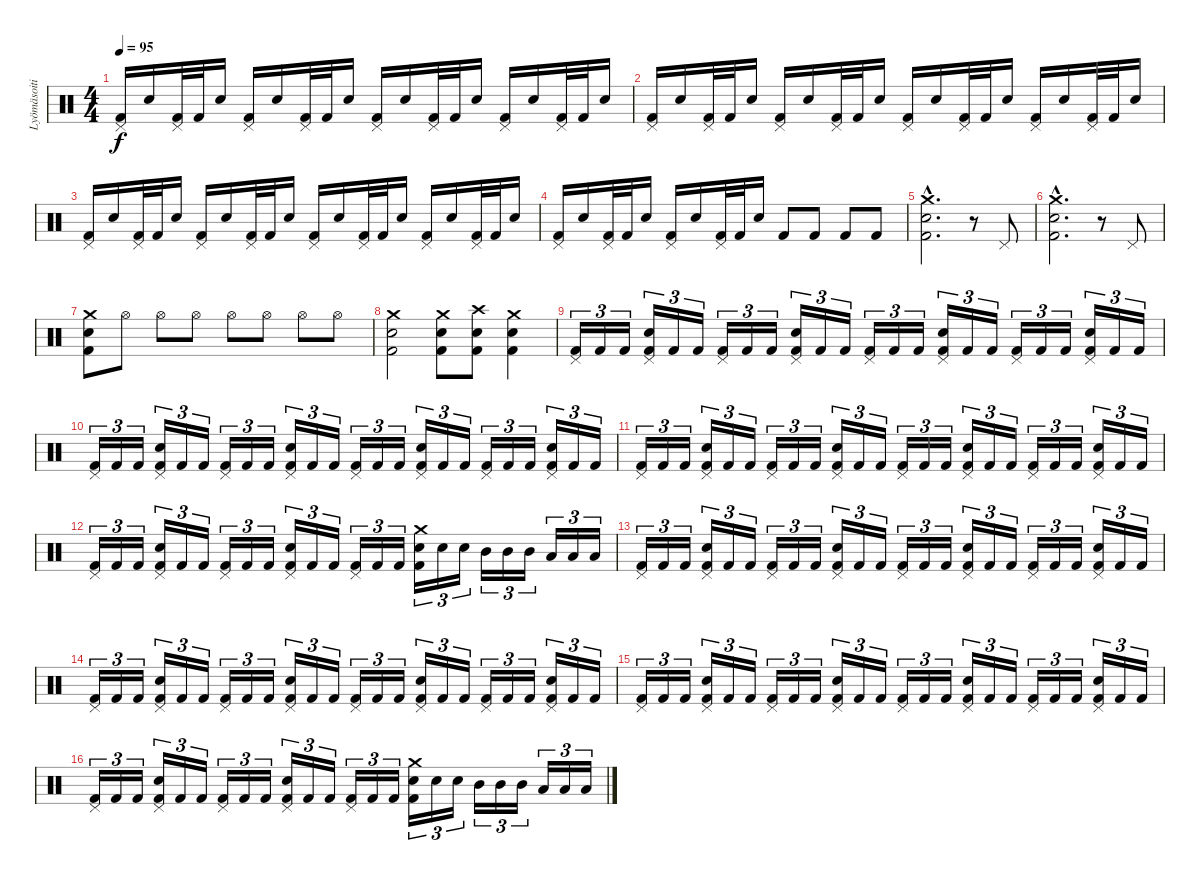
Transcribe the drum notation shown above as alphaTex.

\track ("Lyömäsoitin" "Lyömäsoiti") {instrument percussion}
\staff {score}
\articulation defaults
\ts (4 4)
\tempo 95
\clef neutral
\ks c
("Kick (hit) 2" "Pedal Hi-Hat (hit)").16{dy f} "Electric Snare (hit)".16 ("Kick (hit) 2" "Pedal Hi-Hat (hit)").32 "Kick (hit) 2".32 "Electric Snare (hit)".16 ("Kick (hit) 2" "Pedal Hi-Hat (hit)").16 "Electric Snare (hit)".16 ("Kick (hit) 2" "Pedal Hi-Hat (hit)").32 "Kick (hit) 2".32 "Electric Snare (hit)".16 ("Kick (hit) 2" "Pedal Hi-Hat (hit)").16 "Electric Snare (hit)".16 ("Kick (hit) 2" "Pedal Hi-Hat (hit)").32 "Kick (hit) 2".32 "Electric Snare (hit)".16 ("Kick (hit) 2" "Pedal Hi-Hat (hit)").16 "Electric Snare (hit)".16 ("Kick (hit) 2" "Pedal Hi-Hat (hit)").32 "Kick (hit) 2".32 "Electric Snare (hit)".16 |
("Kick (hit) 2" "Pedal Hi-Hat (hit)").16 "Electric Snare (hit)".16 ("Kick (hit) 2" "Pedal Hi-Hat (hit)").32 "Kick (hit) 2".32 "Electric Snare (hit)".16 ("Kick (hit) 2" "Pedal Hi-Hat (hit)").16 "Electric Snare (hit)".16 ("Kick (hit) 2" "Pedal Hi-Hat (hit)").32 "Kick (hit) 2".32 "Electric Snare (hit)".16 ("Kick (hit) 2" "Pedal Hi-Hat (hit)").16 "Electric Snare (hit)".16 ("Kick (hit) 2" "Pedal Hi-Hat (hit)").32 "Kick (hit) 2".32 "Electric Snare (hit)".16 ("Kick (hit) 2" "Pedal Hi-Hat (hit)").16 "Electric Snare (hit)".16 ("Kick (hit) 2" "Pedal Hi-Hat (hit)").32 "Kick (hit) 2".32 "Electric Snare (hit)".16 |
("Kick (hit) 2" "Pedal Hi-Hat (hit)").16 "Electric Snare (hit)".16 ("Kick (hit) 2" "Pedal Hi-Hat (hit)").32 "Kick (hit) 2".32 "Electric Snare (hit)".16 ("Kick (hit) 2" "Pedal Hi-Hat (hit)").16 "Electric Snare (hit)".16 ("Kick (hit) 2" "Pedal Hi-Hat (hit)").32 "Kick (hit) 2".32 "Electric Snare (hit)".16 ("Kick (hit) 2" "Pedal Hi-Hat (hit)").16 "Electric Snare (hit)".16 ("Kick (hit) 2" "Pedal Hi-Hat (hit)").32 "Kick (hit) 2".32 "Electric Snare (hit)".16 ("Kick (hit) 2" "Pedal Hi-Hat (hit)").16 "Electric Snare (hit)".16 ("Kick (hit) 2" "Pedal Hi-Hat (hit)").32 "Kick (hit) 2".32 "Electric Snare (hit)".16 |
("Kick (hit) 2" "Pedal Hi-Hat (hit)").16 "Electric Snare (hit)".16 ("Kick (hit) 2" "Pedal Hi-Hat (hit)").32 "Kick (hit) 2".32 "Electric Snare (hit)".16 ("Kick (hit) 2" "Pedal Hi-Hat (hit)").16 "Electric Snare (hit)".16 ("Kick (hit) 2" "Pedal Hi-Hat (hit)").32 "Kick (hit) 2".32 "Electric Snare (hit)".16 "Kick (hit) 2".8 "Kick (hit) 2".8 "Kick (hit) 2".8 "Kick (hit) 2".8 |
("Kick (hit) 2"{hac} "Electric Snare (hit)"{hac} "Crash medium (hit)"{hac}).2{d} r.8 "Pedal Hi-Hat (hit)".8 |
("Kick (hit) 2"{hac} "Electric Snare (hit)"{hac} "Crash medium (hit)"{hac}).2{d} r.8 "Pedal Hi-Hat (hit)".8 |
("Kick (hit) 2" "Electric Snare (hit)" "Crash medium (hit)").8 "Hi-Hat (open)".8 "Hi-Hat (open)".8 "Hi-Hat (open)".8 "Hi-Hat (open)".8 "Hi-Hat (open)".8 "Hi-Hat (open)".8 "Hi-Hat (open)".8 |
("Kick (hit) 2" "Electric Snare (hit)" "Crash medium (hit)").2 ("Kick (hit) 2" "Electric Snare (hit)" "Crash medium (hit)").8 ("Kick (hit) 2" "Electric Snare (hit)" "Crash high (hit)").8 ("Kick (hit) 2" "Electric Snare (hit)" "Crash medium (hit)").4 |
("Kick (hit) 2" "Pedal Hi-Hat (hit)").16{tu (3 2)} "Kick (hit) 2".16{tu (3 2)} "Kick (hit) 2".16{tu (3 2)} ("Kick (hit) 2" "Electric Snare (hit)" "Pedal Hi-Hat (hit)").16{tu (3 2)} "Kick (hit) 2".16{tu (3 2)} "Kick (hit) 2".16{tu (3 2)} ("Kick (hit) 2" "Pedal Hi-Hat (hit)").16{tu (3 2)} "Kick (hit) 2".16{tu (3 2)} "Kick (hit) 2".16{tu (3 2)} ("Kick (hit) 2" "Electric Snare (hit)" "Pedal Hi-Hat (hit)").16{tu (3 2)} "Kick (hit) 2".16{tu (3 2)} "Kick (hit) 2".16{tu (3 2)} ("Kick (hit) 2" "Pedal Hi-Hat (hit)").16{tu (3 2)} "Kick (hit) 2".16{tu (3 2)} "Kick (hit) 2".16{tu (3 2)} ("Kick (hit) 2" "Electric Snare (hit)" "Pedal Hi-Hat (hit)").16{tu (3 2)} "Kick (hit) 2".16{tu (3 2)} "Kick (hit) 2".16{tu (3 2)} ("Kick (hit) 2" "Pedal Hi-Hat (hit)").16{tu (3 2)} "Kick (hit) 2".16{tu (3 2)} "Kick (hit) 2".16{tu (3 2)} ("Kick (hit) 2" "Electric Snare (hit)" "Pedal Hi-Hat (hit)").16{tu (3 2)} "Kick (hit) 2".16{tu (3 2)} "Kick (hit) 2".16{tu (3 2)} |
("Kick (hit) 2" "Pedal Hi-Hat (hit)").16{tu (3 2)} "Kick (hit) 2".16{tu (3 2)} "Kick (hit) 2".16{tu (3 2)} ("Kick (hit) 2" "Electric Snare (hit)" "Pedal Hi-Hat (hit)").16{tu (3 2)} "Kick (hit) 2".16{tu (3 2)} "Kick (hit) 2".16{tu (3 2)} ("Kick (hit) 2" "Pedal Hi-Hat (hit)").16{tu (3 2)} "Kick (hit) 2".16{tu (3 2)} "Kick (hit) 2".16{tu (3 2)} ("Kick (hit) 2" "Electric Snare (hit)" "Pedal Hi-Hat (hit)").16{tu (3 2)} "Kick (hit) 2".16{tu (3 2)} "Kick (hit) 2".16{tu (3 2)} ("Kick (hit) 2" "Pedal Hi-Hat (hit)").16{tu (3 2)} "Kick (hit) 2".16{tu (3 2)} "Kick (hit) 2".16{tu (3 2)} ("Kick (hit) 2" "Electric Snare (hit)" "Pedal Hi-Hat (hit)").16{tu (3 2)} "Kick (hit) 2".16{tu (3 2)} "Kick (hit) 2".16{tu (3 2)} ("Kick (hit) 2" "Pedal Hi-Hat (hit)").16{tu (3 2)} "Kick (hit) 2".16{tu (3 2)} "Kick (hit) 2".16{tu (3 2)} ("Kick (hit) 2" "Electric Snare (hit)" "Pedal Hi-Hat (hit)").16{tu (3 2)} "Kick (hit) 2".16{tu (3 2)} "Kick (hit) 2".16{tu (3 2)} |
("Kick (hit) 2" "Pedal Hi-Hat (hit)").16{tu (3 2)} "Kick (hit) 2".16{tu (3 2)} "Kick (hit) 2".16{tu (3 2)} ("Kick (hit) 2" "Electric Snare (hit)" "Pedal Hi-Hat (hit)").16{tu (3 2)} "Kick (hit) 2".16{tu (3 2)} "Kick (hit) 2".16{tu (3 2)} ("Kick (hit) 2" "Pedal Hi-Hat (hit)").16{tu (3 2)} "Kick (hit) 2".16{tu (3 2)} "Kick (hit) 2".16{tu (3 2)} ("Kick (hit) 2" "Electric Snare (hit)" "Pedal Hi-Hat (hit)").16{tu (3 2)} "Kick (hit) 2".16{tu (3 2)} "Kick (hit) 2".16{tu (3 2)} ("Kick (hit) 2" "Pedal Hi-Hat (hit)").16{tu (3 2)} "Kick (hit) 2".16{tu (3 2)} "Kick (hit) 2".16{tu (3 2)} ("Kick (hit) 2" "Electric Snare (hit)" "Pedal Hi-Hat (hit)").16{tu (3 2)} "Kick (hit) 2".16{tu (3 2)} "Kick (hit) 2".16{tu (3 2)} ("Kick (hit) 2" "Pedal Hi-Hat (hit)").16{tu (3 2)} "Kick (hit) 2".16{tu (3 2)} "Kick (hit) 2".16{tu (3 2)} ("Kick (hit) 2" "Electric Snare (hit)" "Pedal Hi-Hat (hit)").16{tu (3 2)} "Kick (hit) 2".16{tu (3 2)} "Kick (hit) 2".16{tu (3 2)} |
("Kick (hit) 2" "Pedal Hi-Hat (hit)").16{tu (3 2)} "Kick (hit) 2".16{tu (3 2)} "Kick (hit) 2".16{tu (3 2)} ("Kick (hit) 2" "Electric Snare (hit)" "Pedal Hi-Hat (hit)").16{tu (3 2)} "Kick (hit) 2".16{tu (3 2)} "Kick (hit) 2".16{tu (3 2)} ("Kick (hit) 2" "Pedal Hi-Hat (hit)").16{tu (3 2)} "Kick (hit) 2".16{tu (3 2)} "Kick (hit) 2".16{tu (3 2)} ("Kick (hit) 2" "Electric Snare (hit)" "Pedal Hi-Hat (hit)").16{tu (3 2)} "Kick (hit) 2".16{tu (3 2)} "Kick (hit) 2".16{tu (3 2)} ("Kick (hit) 2" "Pedal Hi-Hat (hit)").16{tu (3 2)} "Kick (hit) 2".16{tu (3 2)} "Kick (hit) 2".16{tu (3 2)} ("Kick (hit) 2" "Electric Snare (hit)" "Crash medium (hit)").16{tu (3 2)} "Electric Snare (hit)".16{tu (3 2)} "Electric Snare (hit)".16{tu (3 2)} "Mid Tom (hit)".16{tu (3 2)} "Mid Tom (hit)".16{tu (3 2)} "Mid Tom (hit)".16{tu (3 2)} "Low Tom (hit)".16{tu (3 2)} "Low Tom (hit)".16{tu (3 2)} "Low Tom (hit)".16{tu (3 2)} |
("Kick (hit) 2" "Pedal Hi-Hat (hit)").16{tu (3 2)} "Kick (hit) 2".16{tu (3 2)} "Kick (hit) 2".16{tu (3 2)} ("Kick (hit) 2" "Electric Snare (hit)" "Pedal Hi-Hat (hit)").16{tu (3 2)} "Kick (hit) 2".16{tu (3 2)} "Kick (hit) 2".16{tu (3 2)} ("Kick (hit) 2" "Pedal Hi-Hat (hit)").16{tu (3 2)} "Kick (hit) 2".16{tu (3 2)} "Kick (hit) 2".16{tu (3 2)} ("Kick (hit) 2" "Electric Snare (hit)" "Pedal Hi-Hat (hit)").16{tu (3 2)} "Kick (hit) 2".16{tu (3 2)} "Kick (hit) 2".16{tu (3 2)} ("Kick (hit) 2" "Pedal Hi-Hat (hit)").16{tu (3 2)} "Kick (hit) 2".16{tu (3 2)} "Kick (hit) 2".16{tu (3 2)} ("Kick (hit) 2" "Electric Snare (hit)" "Pedal Hi-Hat (hit)").16{tu (3 2)} "Kick (hit) 2".16{tu (3 2)} "Kick (hit) 2".16{tu (3 2)} ("Kick (hit) 2" "Pedal Hi-Hat (hit)").16{tu (3 2)} "Kick (hit) 2".16{tu (3 2)} "Kick (hit) 2".16{tu (3 2)} ("Kick (hit) 2" "Electric Snare (hit)" "Pedal Hi-Hat (hit)").16{tu (3 2)} "Kick (hit) 2".16{tu (3 2)} "Kick (hit) 2".16{tu (3 2)} |
("Kick (hit) 2" "Pedal Hi-Hat (hit)").16{tu (3 2)} "Kick (hit) 2".16{tu (3 2)} "Kick (hit) 2".16{tu (3 2)} ("Kick (hit) 2" "Electric Snare (hit)" "Pedal Hi-Hat (hit)").16{tu (3 2)} "Kick (hit) 2".16{tu (3 2)} "Kick (hit) 2".16{tu (3 2)} ("Kick (hit) 2" "Pedal Hi-Hat (hit)").16{tu (3 2)} "Kick (hit) 2".16{tu (3 2)} "Kick (hit) 2".16{tu (3 2)} ("Kick (hit) 2" "Electric Snare (hit)" "Pedal Hi-Hat (hit)").16{tu (3 2)} "Kick (hit) 2".16{tu (3 2)} "Kick (hit) 2".16{tu (3 2)} ("Kick (hit) 2" "Pedal Hi-Hat (hit)").16{tu (3 2)} "Kick (hit) 2".16{tu (3 2)} "Kick (hit) 2".16{tu (3 2)} ("Kick (hit) 2" "Electric Snare (hit)" "Pedal Hi-Hat (hit)").16{tu (3 2)} "Kick (hit) 2".16{tu (3 2)} "Kick (hit) 2".16{tu (3 2)} ("Kick (hit) 2" "Pedal Hi-Hat (hit)").16{tu (3 2)} "Kick (hit) 2".16{tu (3 2)} "Kick (hit) 2".16{tu (3 2)} ("Kick (hit) 2" "Electric Snare (hit)" "Pedal Hi-Hat (hit)").16{tu (3 2)} "Kick (hit) 2".16{tu (3 2)} "Kick (hit) 2".16{tu (3 2)} |
("Kick (hit) 2" "Pedal Hi-Hat (hit)").16{tu (3 2)} "Kick (hit) 2".16{tu (3 2)} "Kick (hit) 2".16{tu (3 2)} ("Kick (hit) 2" "Electric Snare (hit)" "Pedal Hi-Hat (hit)").16{tu (3 2)} "Kick (hit) 2".16{tu (3 2)} "Kick (hit) 2".16{tu (3 2)} ("Kick (hit) 2" "Pedal Hi-Hat (hit)").16{tu (3 2)} "Kick (hit) 2".16{tu (3 2)} "Kick (hit) 2".16{tu (3 2)} ("Kick (hit) 2" "Electric Snare (hit)" "Pedal Hi-Hat (hit)").16{tu (3 2)} "Kick (hit) 2".16{tu (3 2)} "Kick (hit) 2".16{tu (3 2)} ("Kick (hit) 2" "Pedal Hi-Hat (hit)").16{tu (3 2)} "Kick (hit) 2".16{tu (3 2)} "Kick (hit) 2".16{tu (3 2)} ("Kick (hit) 2" "Electric Snare (hit)" "Pedal Hi-Hat (hit)").16{tu (3 2)} "Kick (hit) 2".16{tu (3 2)} "Kick (hit) 2".16{tu (3 2)} ("Kick (hit) 2" "Pedal Hi-Hat (hit)").16{tu (3 2)} "Kick (hit) 2".16{tu (3 2)} "Kick (hit) 2".16{tu (3 2)} ("Kick (hit) 2" "Electric Snare (hit)" "Pedal Hi-Hat (hit)").16{tu (3 2)} "Kick (hit) 2".16{tu (3 2)} "Kick (hit) 2".16{tu (3 2)} |
("Kick (hit) 2" "Pedal Hi-Hat (hit)").16{tu (3 2)} "Kick (hit) 2".16{tu (3 2)} "Kick (hit) 2".16{tu (3 2)} ("Kick (hit) 2" "Electric Snare (hit)" "Pedal Hi-Hat (hit)").16{tu (3 2)} "Kick (hit) 2".16{tu (3 2)} "Kick (hit) 2".16{tu (3 2)} ("Kick (hit) 2" "Pedal Hi-Hat (hit)").16{tu (3 2)} "Kick (hit) 2".16{tu (3 2)} "Kick (hit) 2".16{tu (3 2)} ("Kick (hit) 2" "Electric Snare (hit)" "Pedal Hi-Hat (hit)").16{tu (3 2)} "Kick (hit) 2".16{tu (3 2)} "Kick (hit) 2".16{tu (3 2)} ("Kick (hit) 2" "Pedal Hi-Hat (hit)").16{tu (3 2)} "Kick (hit) 2".16{tu (3 2)} "Kick (hit) 2".16{tu (3 2)} ("Kick (hit) 2" "Electric Snare (hit)" "Crash medium (hit)").16{tu (3 2)} "Electric Snare (hit)".16{tu (3 2)} "Electric Snare (hit)".16{tu (3 2)} "Mid Tom (hit)".16{tu (3 2)} "Mid Tom (hit)".16{tu (3 2)} "Mid Tom (hit)".16{tu (3 2)} "Low Tom (hit)".16{tu (3 2)} "Low Tom (hit)".16{tu (3 2)} "Low Tom (hit)".16{tu (3 2)}
